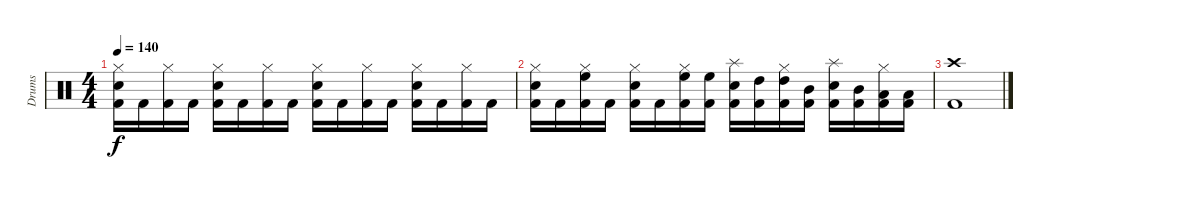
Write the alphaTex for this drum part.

\track ("Drums" "Drums") {instrument percussion}
\staff {score}
\articulation defaults
\ts (4 4)
\tempo 140
\clef neutral
\ks c
("Kick (hit) 2" "Electric Snare (hit)" "Hi-Hat (closed)").16{dy f} "Kick (hit) 2".16 ("Kick (hit) 2" "Hi-Hat (closed)").16 "Kick (hit) 2".16 ("Kick (hit) 2" "Electric Snare (hit)" "Hi-Hat (closed)").16 "Kick (hit) 2".16 ("Kick (hit) 2" "Hi-Hat (closed)").16 "Kick (hit) 2".16 ("Kick (hit) 2" "Electric Snare (hit)" "Hi-Hat (closed)").16 "Kick (hit) 2".16 ("Kick (hit) 2" "Hi-Hat (closed)").16 "Kick (hit) 2".16 ("Kick (hit) 2" "Electric Snare (hit)" "Hi-Hat (closed)").16 "Kick (hit) 2".16 ("Kick (hit) 2" "Hi-Hat (closed)").16 "Kick (hit) 2".16 |
("Kick (hit) 2" "Electric Snare (hit)" "Hi-Hat (closed)").16 "Kick (hit) 2".16 ("Kick (hit) 2" "Hi-Hat (closed)" "High Floor Tom (hit)").16 "Kick (hit) 2".16 ("Kick (hit) 2" "Electric Snare (hit)" "Hi-Hat (closed)").16 "Kick (hit) 2".16 ("Kick (hit) 2" "Hi-Hat (closed)" "High Floor Tom (hit)").16 ("Kick (hit) 2" "High Floor Tom (hit)").16 ("Kick (hit) 2" "Electric Snare (hit)" "Splash (hit)").16 ("Kick (hit) 2" "High Tom (hit)").16 ("Kick (hit) 2" "Hi-Hat (closed)" "High Tom (hit)").16 ("Kick (hit) 2" "Mid Tom (hit)").16 ("Kick (hit) 2" "Electric Snare (hit)" "Splash (hit)").16 ("Kick (hit) 2" "Mid Tom (hit)").16 ("Kick (hit) 2" "Hi-Hat (closed)" "Low Tom (hit)").16 ("Kick (hit) 2" "Low Tom (hit)").16 |
("Kick (hit) 2" "Crash high (hit)").1
